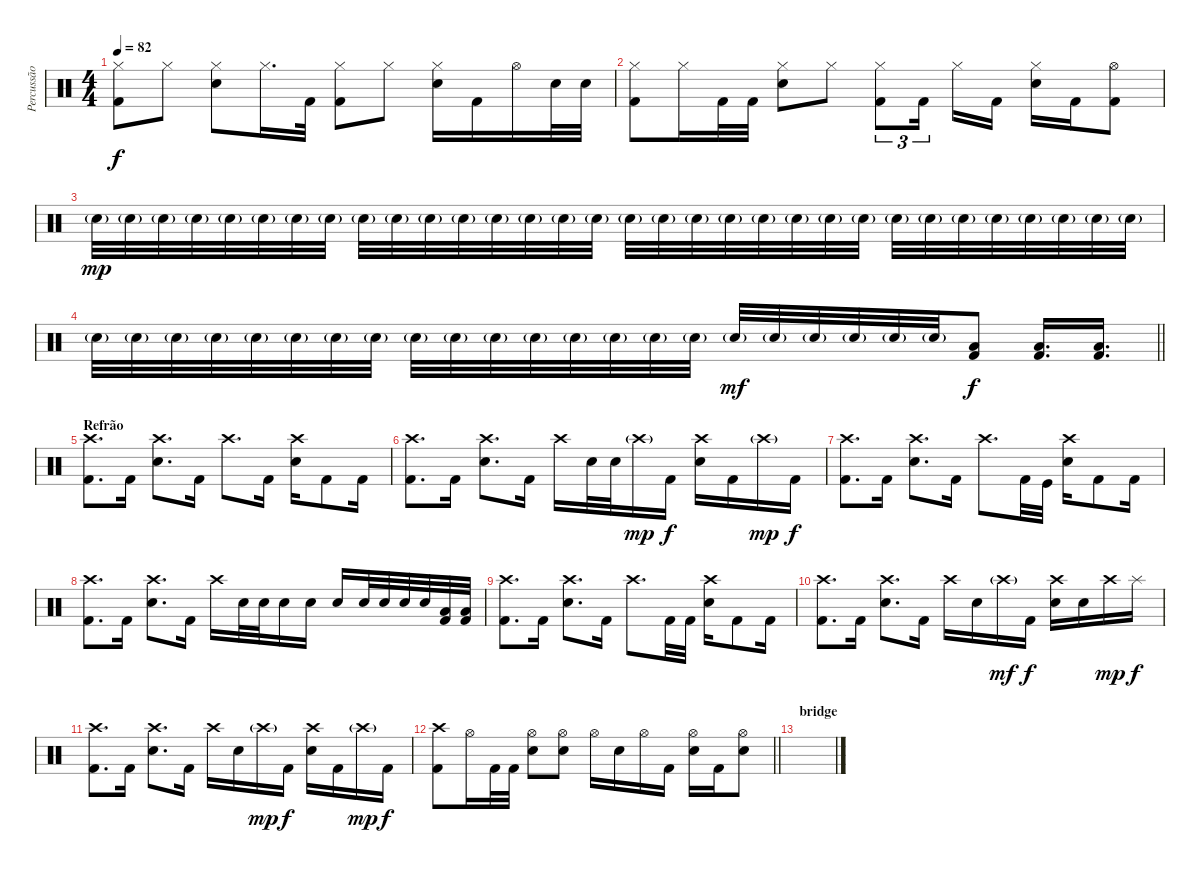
\track ("Percussão" "Percussão") {instrument percussion}
\staff {score}
\articulation defaults
\ts (4 4)
\tempo 82
\clef neutral
\ks c
("Hi-Hat (closed)" "Kick (hit) 2").8{dy f} "Hi-Hat (closed)".8 ("Hi-Hat (closed)" "Electric Snare (hit)").8 "Hi-Hat (closed)".16{d} "Kick (hit) 2".32 ("Kick (hit) 2" "Hi-Hat (closed)").8 "Hi-Hat (closed)".8 ("Hi-Hat (closed)" "Electric Snare (hit)").16 "Kick (hit) 2".16 "Hi-Hat (open)".16 "Electric Snare (hit)".32 "Electric Snare (hit)".32 |
("Hi-Hat (closed)" "Kick (hit) 2").8 "Hi-Hat (closed)".16 "Kick (hit) 2".32 "Kick (hit) 2".32 ("Hi-Hat (closed)" "Electric Snare (hit)").8 "Hi-Hat (closed)".8 ("Hi-Hat (closed)" "Kick (hit) 2").8{tu (3 2)} "Kick (hit) 2".16{tu (3 2) beam splitsecondary} "Hi-Hat (closed)".16 "Kick (hit) 2".16 ("Electric Snare (hit)" "Hi-Hat (closed)").16 "Kick (hit) 2".16 ("Kick (hit) 2" "Hi-Hat (open)").8 |
"Electric Snare (hit)"{g}.32{dy mp} "Electric Snare (hit)"{g}.32 "Electric Snare (hit)"{g}.32 "Electric Snare (hit)"{g}.32 "Electric Snare (hit)"{g}.32 "Electric Snare (hit)"{g}.32 "Electric Snare (hit)"{g}.32 "Electric Snare (hit)"{g}.32 "Electric Snare (hit)"{g}.32 "Electric Snare (hit)"{g}.32 "Electric Snare (hit)"{g}.32 "Electric Snare (hit)"{g}.32 "Electric Snare (hit)"{g}.32 "Electric Snare (hit)"{g}.32 "Electric Snare (hit)"{g}.32 "Electric Snare (hit)"{g}.32 "Electric Snare (hit)"{g}.32 "Electric Snare (hit)"{g}.32 "Electric Snare (hit)"{g}.32 "Electric Snare (hit)"{g}.32 "Electric Snare (hit)"{g}.32 "Electric Snare (hit)"{g}.32 "Electric Snare (hit)"{g}.32 "Electric Snare (hit)"{g}.32 "Electric Snare (hit)"{g}.32 "Electric Snare (hit)"{g}.32 "Electric Snare (hit)"{g}.32 "Electric Snare (hit)"{g}.32 "Electric Snare (hit)"{g}.32 "Electric Snare (hit)"{g}.32 "Electric Snare (hit)"{g}.32 "Electric Snare (hit)"{g}.32 |
\barLineRight lightlight "Electric Snare (hit)"{g}.32 "Electric Snare (hit)"{g}.32 "Electric Snare (hit)"{g}.32 "Electric Snare (hit)"{g}.32 "Electric Snare (hit)"{g}.32 "Electric Snare (hit)"{g}.32 "Electric Snare (hit)"{g}.32 "Electric Snare (hit)"{g}.32 "Electric Snare (hit)"{g}.32 "Electric Snare (hit)"{g}.32 "Electric Snare (hit)"{g}.32 "Electric Snare (hit)"{g}.32 "Electric Snare (hit)"{g}.32 "Electric Snare (hit)"{g}.32 "Electric Snare (hit)"{g}.32 "Electric Snare (hit)"{g}.32 "Electric Snare (hit)"{g}.32{dy mf} "Electric Snare (hit)"{g}.32 "Electric Snare (hit)"{g}.32 "Electric Snare (hit)"{g}.32 "Electric Snare (hit)"{g}.32 "Electric Snare (hit)"{g}.32
("Kick (hit) 2" "Low Tom (hit)").8{dy f} ("Kick (hit) 2" "Low Tom (hit)").16{d} ("Kick (hit) 2" "Low Tom (hit)").16{d} |
\section ("" "Refrão")
("Kick (hit) 2" "Crash high (hit)").8{d} "Kick (hit) 2".16 ("Electric Snare (hit)" "Crash high (hit)").8{d} "Kick (hit) 2".16 "Crash high (hit)".8{d} "Kick (hit) 2".16 ("Electric Snare (hit)" "Crash high (hit)").16 "Kick (hit) 2".8 "Kick (hit) 2".16 |
("Kick (hit) 2" "Crash high (hit)").8{d} "Kick (hit) 2".16 ("Electric Snare (hit)" "Crash high (hit)").8{d} "Kick (hit) 2".16 "Crash high (hit)".16 "Electric Snare (hit)".32 "Electric Snare (hit)".32 "Crash high (hit)"{g}.16{dy mp} "Kick (hit) 2".16{dy f} ("Crash high (hit)" "Electric Snare (hit)").16 "Kick (hit) 2".16 "Crash high (hit)"{g}.16{dy mp} "Kick (hit) 2".16{dy f} |
("Kick (hit) 2" "Crash high (hit)").8{d} "Kick (hit) 2".16 ("Electric Snare (hit)" "Crash high (hit)").8{d} "Kick (hit) 2".16 "Crash high (hit)".8{d} "Kick (hit) 2".32 "Kick (hit)".32 ("Electric Snare (hit)" "Crash high (hit)").16 "Kick (hit) 2".8 "Kick (hit) 2".16 |
("Kick (hit) 2" "Crash high (hit)").8{d} "Kick (hit) 2".16 ("Electric Snare (hit)" "Crash high (hit)").8{d} "Kick (hit) 2".16 "Crash high (hit)".16 "Electric Snare (hit)".32 "Electric Snare (hit)".32 "Electric Snare (hit)".16 "Electric Snare (hit)".16 "Electric Snare (hit)".16 "Electric Snare (hit)".32 "Electric Snare (hit)".32 "Electric Snare (hit)".32 "Electric Snare (hit)".32 ("Low Tom (hit)" "Kick (hit) 2").32 ("Low Tom (hit)" "Kick (hit) 2").32 |
("Kick (hit) 2" "Crash high (hit)").8{d} "Kick (hit) 2".16 ("Electric Snare (hit)" "Crash high (hit)").8{d} "Kick (hit) 2".16 "Crash high (hit)".8{d} "Kick (hit) 2".32 "Kick (hit) 2".32 ("Electric Snare (hit)" "Crash high (hit)").16 "Kick (hit) 2".8 "Kick (hit) 2".16 |
("Kick (hit) 2" "Crash high (hit)").8{d} "Kick (hit) 2".16 ("Electric Snare (hit)" "Crash high (hit)").8{d} "Kick (hit) 2".16 "Crash high (hit)".16 "Electric Snare (hit)".16 "Crash high (hit)"{g}.16{dy mf} "Kick (hit) 2".16{dy f} ("Crash high (hit)" "Electric Snare (hit)").16 "Electric Snare (hit)".16 "Crash high (hit)".16{dy mp} "Splash (hit)".16{dy f} |
("Kick (hit) 2" "Crash high (hit)").8{d} "Kick (hit) 2".16 ("Electric Snare (hit)" "Crash high (hit)").8{d} "Kick (hit) 2".16 "Crash high (hit)".16 "Electric Snare (hit)".16 "Crash high (hit)"{g}.16{dy mp} "Kick (hit) 2".16{dy f} ("Crash high (hit)" "Electric Snare (hit)").16 "Kick (hit) 2".16 "Crash high (hit)"{g}.16{dy mp} "Kick (hit) 2".16{dy f} |
\barLineRight lightlight
("Crash high (hit)" "Kick (hit) 2").8 "Hi-Hat (open)".16 "Kick (hit) 2".32 "Kick (hit) 2".32 ("Hi-Hat (open)" "Electric Snare (hit)").8 ("Electric Snare (hit)" "Hi-Hat (open)").8 "Hi-Hat (open)".16 "Electric Snare (hit)".16 "Hi-Hat (open)".16 "Kick (hit) 2".16 ("Hi-Hat (open)" "Electric Snare (hit)").16 "Kick (hit) 2".16 ("Electric Snare (hit)" "Hi-Hat (open)").8 |
\section ("" "bridge")
